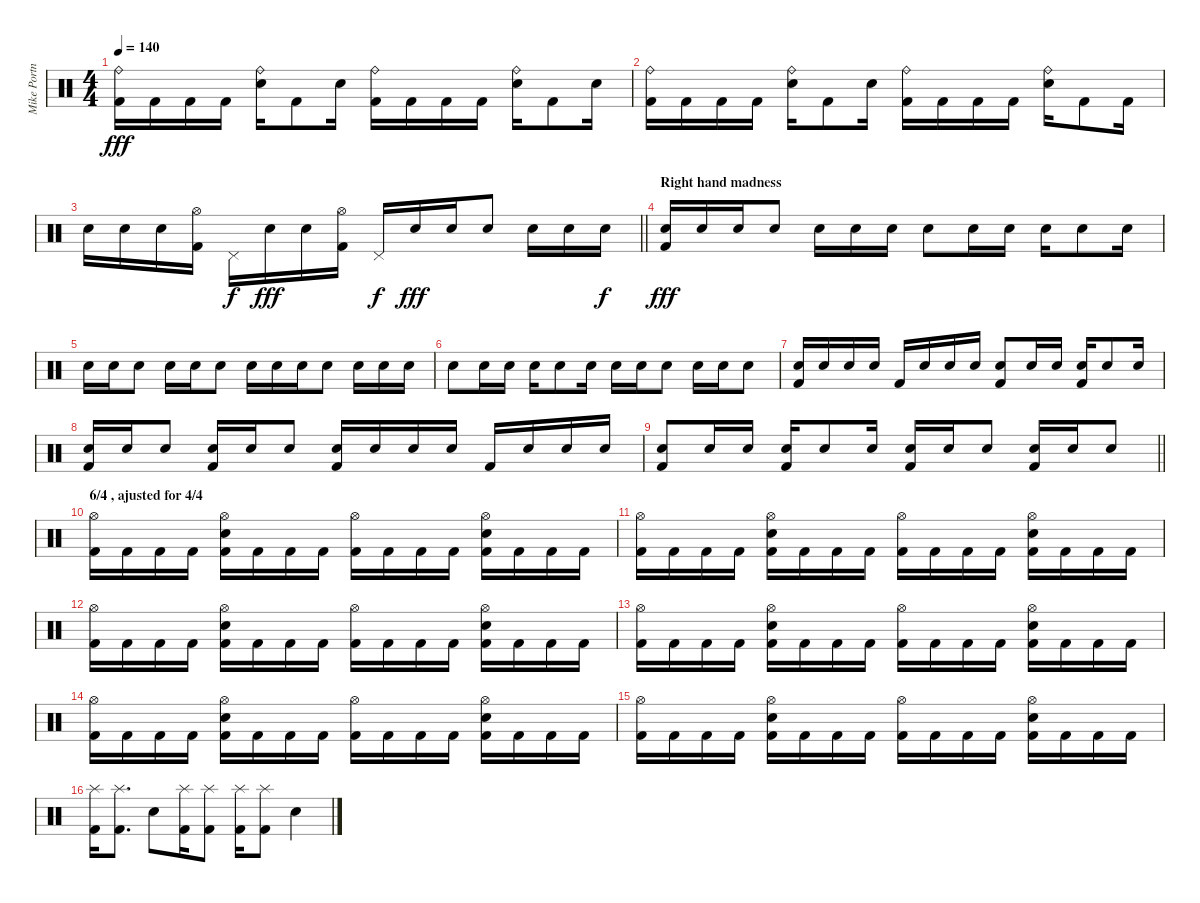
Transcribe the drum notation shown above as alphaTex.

\track ("Mike Portnoy" "Mike Portn") {instrument percussion}
\staff {score}
\articulation defaults
\ts (4 4)
\tempo 140
\clef neutral
\ks c
("Ride (bell)" "Kick (hit) 2").16{dy fff} "Kick (hit) 2".16 "Kick (hit) 2".16 "Kick (hit) 2".16 ("Ride (bell)" "Snare (hit) 2").16 "Kick (hit) 2".8 "Snare (hit) 2".16 ("Ride (bell)" "Kick (hit) 2").16 "Kick (hit) 2".16 "Kick (hit) 2".16 "Kick (hit) 2".16 ("Ride (bell)" "Snare (hit) 2").16 "Kick (hit) 2".8 "Snare (hit) 2".16 |
("Ride (bell)" "Kick (hit) 2").16 "Kick (hit) 2".16 "Kick (hit) 2".16 "Kick (hit) 2".16 ("Ride (bell)" "Snare (hit) 2").16 "Kick (hit) 2".8 "Snare (hit) 2".16 ("Ride (bell)" "Kick (hit) 2").16 "Kick (hit) 2".16 "Kick (hit) 2".16 "Kick (hit) 2".16 ("Ride (bell)" "Snare (hit) 2").16 "Kick (hit) 2".8 "Kick (hit) 2".16 |
\barLineRight lightlight "Snare (hit) 2".16 "Snare (hit) 2".16 "Snare (hit) 2".16
("Hi-Hat (open)" "Kick (hit) 2").16 "Pedal Hi-Hat (hit)".16{dy f} "Snare (hit) 2".16{dy fff} "Snare (hit) 2".16 ("Hi-Hat (open)" "Kick (hit) 2").16 "Pedal Hi-Hat (hit)".16{dy f} "Snare (hit) 2".16{dy fff} "Snare (hit) 2".16 "Snare (hit) 2".8 "Snare (hit) 2".16 "Snare (hit) 2".16 "Snare (hit) 2".16{dy f} |
\section ("" "Right hand madness")
("Snare (hit) 2" "Kick (hit) 2").16{dy fff} "Snare (hit) 2".16 "Snare (hit) 2".16 "Snare (hit) 2".8 "Snare (hit) 2".16 "Snare (hit) 2".16 "Snare (hit) 2".16 "Snare (hit) 2".8 "Snare (hit) 2".16 "Snare (hit) 2".16 "Snare (hit) 2".16 "Snare (hit) 2".8 "Snare (hit) 2".16 |
"Snare (hit) 2".16 "Snare (hit) 2".16 "Snare (hit) 2".8 "Snare (hit) 2".16 "Snare (hit) 2".16 "Snare (hit) 2".8 "Snare (hit) 2".16 "Snare (hit) 2".16 "Snare (hit) 2".16 "Snare (hit) 2".8 "Snare (hit) 2".16 "Snare (hit) 2".16 "Snare (hit) 2".16 |
"Snare (hit) 2".8 "Snare (hit) 2".16 "Snare (hit) 2".16 "Snare (hit) 2".16 "Snare (hit) 2".8 "Snare (hit) 2".16 "Snare (hit) 2".16 "Snare (hit) 2".16 "Snare (hit) 2".8 "Snare (hit) 2".16 "Snare (hit) 2".16 "Snare (hit) 2".8 |
("Snare (hit) 2" "Kick (hit) 2").16 "Snare (hit) 2".16 "Snare (hit) 2".16 "Snare (hit) 2".16 "Kick (hit) 2".16 "Snare (hit) 2".16 "Snare (hit) 2".16 "Snare (hit) 2".16 ("Snare (hit) 2" "Kick (hit) 2").8 "Snare (hit) 2".16 "Snare (hit) 2".16 ("Snare (hit) 2" "Kick (hit) 2").16 "Snare (hit) 2".8 "Snare (hit) 2".16 |
("Snare (hit) 2" "Kick (hit) 2").16 "Snare (hit) 2".16 "Snare (hit) 2".8 ("Snare (hit) 2" "Kick (hit) 2").16 "Snare (hit) 2".16 "Snare (hit) 2".8 ("Snare (hit) 2" "Kick (hit) 2").16 "Snare (hit) 2".16 "Snare (hit) 2".16 "Snare (hit) 2".16 "Kick (hit) 2".16 "Snare (hit) 2".16 "Snare (hit) 2".16 "Snare (hit) 2".16 |
\barLineRight lightlight
("Snare (hit) 2" "Kick (hit) 2").8 "Snare (hit) 2".16 "Snare (hit) 2".16 ("Snare (hit) 2" "Kick (hit) 2").16 "Snare (hit) 2".8 "Snare (hit) 2".16 ("Snare (hit) 2" "Kick (hit) 2").16 "Snare (hit) 2".16 "Snare (hit) 2".8 ("Snare (hit) 2" "Kick (hit) 2").16 "Snare (hit) 2".16 "Snare (hit) 2".8 |
\section ("" "6/4 , ajusted for 4/4")
("Hi-Hat (open)" "Kick (hit) 2").16 "Kick (hit) 2".16 "Kick (hit) 2".16 "Kick (hit) 2".16 ("Hi-Hat (open)" "Snare (hit) 2" "Kick (hit) 2").16 "Kick (hit) 2".16 "Kick (hit) 2".16 "Kick (hit) 2".16 ("Hi-Hat (open)" "Kick (hit) 2").16 "Kick (hit) 2".16 "Kick (hit) 2".16 "Kick (hit) 2".16 ("Hi-Hat (open)" "Snare (hit) 2" "Kick (hit) 2").16 "Kick (hit) 2".16 "Kick (hit) 2".16 "Kick (hit) 2".16 |
("Hi-Hat (open)" "Kick (hit) 2").16 "Kick (hit) 2".16 "Kick (hit) 2".16 "Kick (hit) 2".16 ("Hi-Hat (open)" "Snare (hit) 2" "Kick (hit) 2").16 "Kick (hit) 2".16 "Kick (hit) 2".16 "Kick (hit) 2".16 ("Hi-Hat (open)" "Kick (hit) 2").16 "Kick (hit) 2".16 "Kick (hit) 2".16 "Kick (hit) 2".16 ("Hi-Hat (open)" "Snare (hit) 2" "Kick (hit) 2").16 "Kick (hit) 2".16 "Kick (hit) 2".16 "Kick (hit) 2".16 |
("Hi-Hat (open)" "Kick (hit) 2").16 "Kick (hit) 2".16 "Kick (hit) 2".16 "Kick (hit) 2".16 ("Hi-Hat (open)" "Snare (hit) 2" "Kick (hit) 2").16 "Kick (hit) 2".16 "Kick (hit) 2".16 "Kick (hit) 2".16 ("Hi-Hat (open)" "Kick (hit) 2").16 "Kick (hit) 2".16 "Kick (hit) 2".16 "Kick (hit) 2".16 ("Hi-Hat (open)" "Snare (hit) 2" "Kick (hit) 2").16 "Kick (hit) 2".16 "Kick (hit) 2".16 "Kick (hit) 2".16 |
("Hi-Hat (open)" "Kick (hit) 2").16 "Kick (hit) 2".16 "Kick (hit) 2".16 "Kick (hit) 2".16 ("Hi-Hat (open)" "Snare (hit) 2" "Kick (hit) 2").16 "Kick (hit) 2".16 "Kick (hit) 2".16 "Kick (hit) 2".16 ("Hi-Hat (open)" "Kick (hit) 2").16 "Kick (hit) 2".16 "Kick (hit) 2".16 "Kick (hit) 2".16 ("Hi-Hat (open)" "Snare (hit) 2" "Kick (hit) 2").16 "Kick (hit) 2".16 "Kick (hit) 2".16 "Kick (hit) 2".16 |
("Hi-Hat (open)" "Kick (hit) 2").16 "Kick (hit) 2".16 "Kick (hit) 2".16 "Kick (hit) 2".16 ("Hi-Hat (open)" "Snare (hit) 2" "Kick (hit) 2").16 "Kick (hit) 2".16 "Kick (hit) 2".16 "Kick (hit) 2".16 ("Hi-Hat (open)" "Kick (hit) 2").16 "Kick (hit) 2".16 "Kick (hit) 2".16 "Kick (hit) 2".16 ("Hi-Hat (open)" "Snare (hit) 2" "Kick (hit) 2").16 "Kick (hit) 2".16 "Kick (hit) 2".16 "Kick (hit) 2".16 |
("Hi-Hat (open)" "Kick (hit) 2").16 "Kick (hit) 2".16 "Kick (hit) 2".16 "Kick (hit) 2".16 ("Hi-Hat (open)" "Snare (hit) 2" "Kick (hit) 2").16 "Kick (hit) 2".16 "Kick (hit) 2".16 "Kick (hit) 2".16 ("Hi-Hat (open)" "Kick (hit) 2").16 "Kick (hit) 2".16 "Kick (hit) 2".16 "Kick (hit) 2".16 ("Hi-Hat (open)" "Snare (hit) 2" "Kick (hit) 2").16 "Kick (hit) 2".16 "Kick (hit) 2".16 "Kick (hit) 2".16 |
("Splash (hit)" "Kick (hit) 2").16 ("Splash (hit)" "Kick (hit) 2").8{d} "Snare (hit) 2".8 ("Splash (hit)" "Kick (hit) 2").16 ("Splash (hit)" "Kick (hit) 2").8 ("Splash (hit)" "Kick (hit) 2").16 ("Splash (hit)" "Kick (hit) 2").8 "Snare (hit) 2".4
